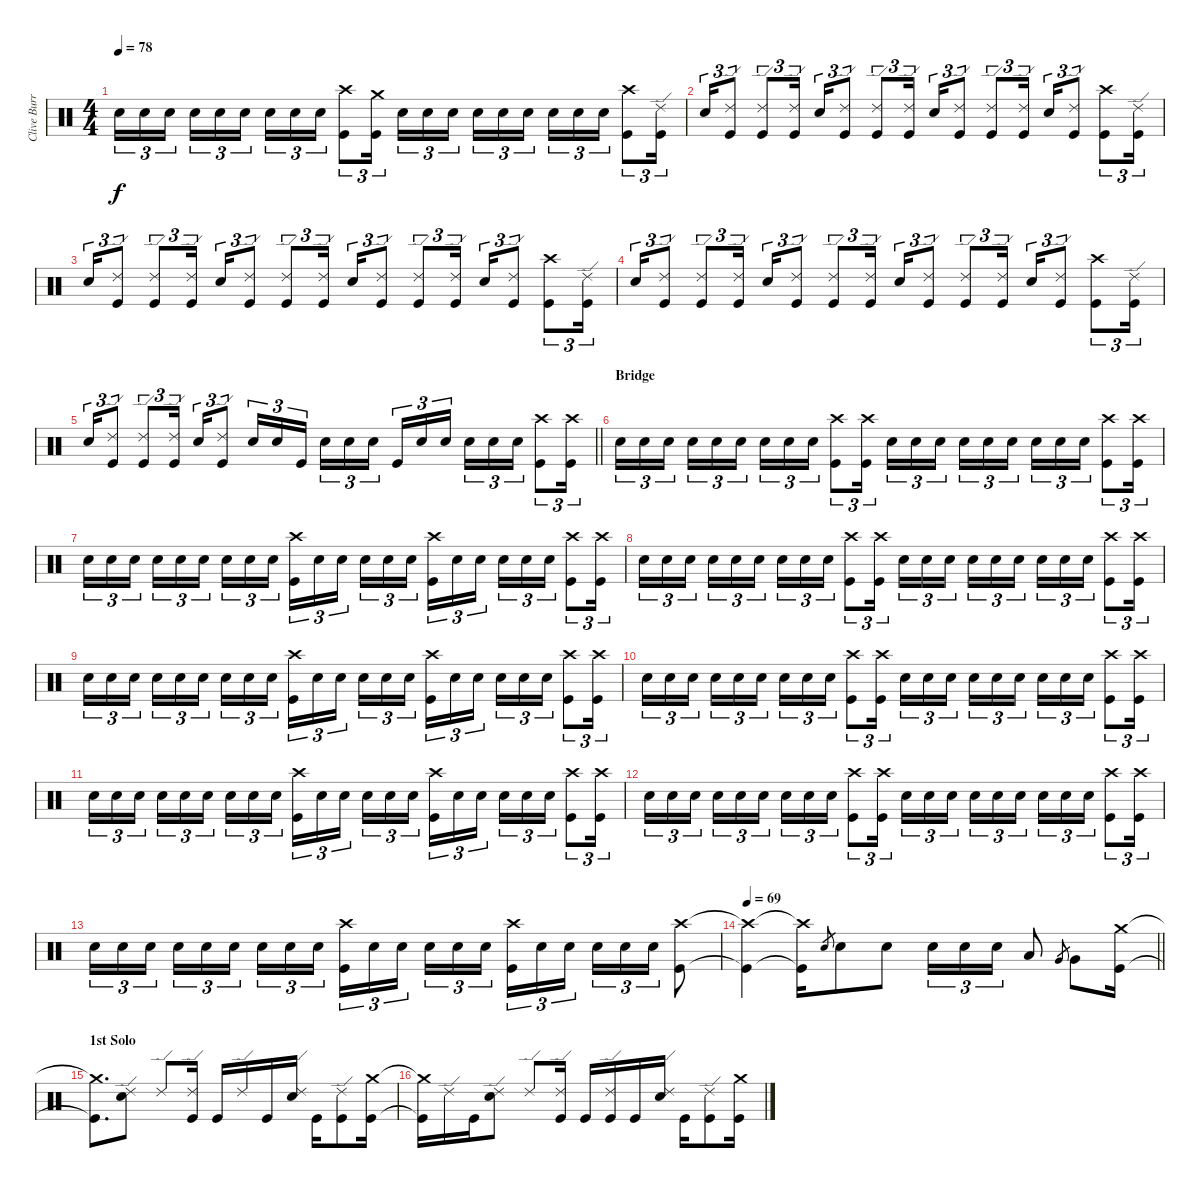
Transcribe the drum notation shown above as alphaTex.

\track ("Clive Burr" "Clive Burr") {instrument percussion}
\staff {score}
\articulation defaults
\ts (4 4)
\tempo 78
\clef neutral
\ks c "Electric Snare (hit)".16{tu (3 2) dy f} "Electric Snare (hit)".16{tu (3 2)} "Electric Snare (hit)".16{tu (3 2) beam splitsecondary} "Electric Snare (hit)".16{tu (3 2)} "Electric Snare (hit)".16{tu (3 2)} "Electric Snare (hit)".16{tu (3 2)} "Electric Snare (hit)".16{tu (3 2)} "Electric Snare (hit)".16{tu (3 2)} "Electric Snare (hit)".16{tu (3 2)}
("Crash high (hit)" "Kick (hit)").8{tu (3 2)} ("Crash medium (hit)" "Kick (hit)").16{tu (3 2)} "Electric Snare (hit)".16{tu (3 2)} "Electric Snare (hit)".16{tu (3 2)} "Electric Snare (hit)".16{tu (3 2) beam splitsecondary} "Electric Snare (hit)".16{tu (3 2)} "Electric Snare (hit)".16{tu (3 2)} "Electric Snare (hit)".16{tu (3 2)} "Electric Snare (hit)".16{tu (3 2)} "Electric Snare (hit)".16{tu (3 2)} "Electric Snare (hit)".16{tu (3 2)} ("Crash high (hit)" "Kick (hit)").8{tu (3 2)} ("Ride (edge) 2" "Kick (hit)").16{tu (3 2)} |
"Electric Snare (hit)".16{tu (3 2)} ("Ride (edge) 2" "Kick (hit)").8{tu (3 2)} ("Ride (edge) 2" "Kick (hit)").8{tu (3 2)} ("Ride (edge) 2" "Kick (hit)").16{tu (3 2)} "Electric Snare (hit)".16{tu (3 2)} ("Ride (edge) 2" "Kick (hit)").8{tu (3 2)} ("Ride (edge) 2" "Kick (hit)").8{tu (3 2)} ("Ride (edge) 2" "Kick (hit)").16{tu (3 2)} "Electric Snare (hit)".16{tu (3 2)} ("Ride (edge) 2" "Kick (hit)").8{tu (3 2)} ("Ride (edge) 2" "Kick (hit)").8{tu (3 2)} ("Ride (edge) 2" "Kick (hit)").16{tu (3 2)} "Electric Snare (hit)".16{tu (3 2)} ("Ride (edge) 2" "Kick (hit)").8{tu (3 2)} ("Crash high (hit)" "Kick (hit)").8{tu (3 2)} ("Ride (edge) 2" "Kick (hit)").16{tu (3 2)} |
"Electric Snare (hit)".16{tu (3 2)} ("Ride (edge) 2" "Kick (hit)").8{tu (3 2)} ("Ride (edge) 2" "Kick (hit)").8{tu (3 2)} ("Ride (edge) 2" "Kick (hit)").16{tu (3 2)} "Electric Snare (hit)".16{tu (3 2)} ("Ride (edge) 2" "Kick (hit)").8{tu (3 2)} ("Ride (edge) 2" "Kick (hit)").8{tu (3 2)} ("Ride (edge) 2" "Kick (hit)").16{tu (3 2)} "Electric Snare (hit)".16{tu (3 2)} ("Ride (edge) 2" "Kick (hit)").8{tu (3 2)} ("Ride (edge) 2" "Kick (hit)").8{tu (3 2)} ("Ride (edge) 2" "Kick (hit)").16{tu (3 2)} "Electric Snare (hit)".16{tu (3 2)} ("Ride (edge) 2" "Kick (hit)").8{tu (3 2)} ("Crash high (hit)" "Kick (hit)").8{tu (3 2)} ("Ride (edge) 2" "Kick (hit)").16{tu (3 2)} |
"Electric Snare (hit)".16{tu (3 2)} ("Ride (edge) 2" "Kick (hit)").8{tu (3 2)} ("Ride (edge) 2" "Kick (hit)").8{tu (3 2)} ("Ride (edge) 2" "Kick (hit)").16{tu (3 2)} "Electric Snare (hit)".16{tu (3 2)} ("Ride (edge) 2" "Kick (hit)").8{tu (3 2)} ("Ride (edge) 2" "Kick (hit)").8{tu (3 2)} ("Ride (edge) 2" "Kick (hit)").16{tu (3 2)} "Electric Snare (hit)".16{tu (3 2)} ("Ride (edge) 2" "Kick (hit)").8{tu (3 2)} ("Ride (edge) 2" "Kick (hit)").8{tu (3 2)} ("Ride (edge) 2" "Kick (hit)").16{tu (3 2)} "Electric Snare (hit)".16{tu (3 2)} ("Ride (edge) 2" "Kick (hit)").8{tu (3 2)} ("Crash high (hit)" "Kick (hit)").8{tu (3 2)} ("Ride (edge) 2" "Kick (hit)").16{tu (3 2)} |
\barLineRight lightlight "Electric Snare (hit)".16{tu (3 2)}
("Ride (edge) 2" "Kick (hit)").8{tu (3 2)} ("Ride (edge) 2" "Kick (hit)").8{tu (3 2)} ("Ride (edge) 2" "Kick (hit)").16{tu (3 2)} "Electric Snare (hit)".16{tu (3 2)} ("Ride (edge) 2" "Kick (hit)").8{tu (3 2)} "Electric Snare (hit)".16{tu (3 2)} "Electric Snare (hit)".16{tu (3 2)} "Kick (hit)".16{tu (3 2)} "Electric Snare (hit)".16{tu (3 2)} "Electric Snare (hit)".16{tu (3 2)} "Electric Snare (hit)".16{tu (3 2) beam splitsecondary} "Kick (hit)".16{tu (3 2)} "Electric Snare (hit)".16{tu (3 2)} "Electric Snare (hit)".16{tu (3 2)} "Electric Snare (hit)".16{tu (3 2)} "Electric Snare (hit)".16{tu (3 2)} "Electric Snare (hit)".16{tu (3 2)} ("Crash high (hit)" "Kick (hit)").8{tu (3 2)} ("Crash high (hit)" "Kick (hit)").16{tu (3 2)} |
\section ("" "Bridge")
"Electric Snare (hit)".16{tu (3 2)} "Electric Snare (hit)".16{tu (3 2)} "Electric Snare (hit)".16{tu (3 2) beam splitsecondary} "Electric Snare (hit)".16{tu (3 2)} "Electric Snare (hit)".16{tu (3 2)} "Electric Snare (hit)".16{tu (3 2)} "Electric Snare (hit)".16{tu (3 2)} "Electric Snare (hit)".16{tu (3 2)} "Electric Snare (hit)".16{tu (3 2)} ("Crash high (hit)" "Kick (hit)").8{tu (3 2)} ("Crash high (hit)" "Kick (hit)").16{tu (3 2)} "Electric Snare (hit)".16{tu (3 2)} "Electric Snare (hit)".16{tu (3 2)} "Electric Snare (hit)".16{tu (3 2) beam splitsecondary} "Electric Snare (hit)".16{tu (3 2)} "Electric Snare (hit)".16{tu (3 2)} "Electric Snare (hit)".16{tu (3 2)} "Electric Snare (hit)".16{tu (3 2)} "Electric Snare (hit)".16{tu (3 2)} "Electric Snare (hit)".16{tu (3 2)} ("Crash high (hit)" "Kick (hit)").8{tu (3 2)} ("Crash high (hit)" "Kick (hit)").16{tu (3 2)} |
"Electric Snare (hit)".16{tu (3 2)} "Electric Snare (hit)".16{tu (3 2)} "Electric Snare (hit)".16{tu (3 2) beam splitsecondary} "Electric Snare (hit)".16{tu (3 2)} "Electric Snare (hit)".16{tu (3 2)} "Electric Snare (hit)".16{tu (3 2)} "Electric Snare (hit)".16{tu (3 2)} "Electric Snare (hit)".16{tu (3 2)} "Electric Snare (hit)".16{tu (3 2) beam splitsecondary} ("Crash high (hit)" "Kick (hit)").16{tu (3 2)} "Electric Snare (hit)".16{tu (3 2)} "Electric Snare (hit)".16{tu (3 2)} "Electric Snare (hit)".16{tu (3 2)} "Electric Snare (hit)".16{tu (3 2)} "Electric Snare (hit)".16{tu (3 2) beam splitsecondary} ("Crash high (hit)" "Kick (hit)").16{tu (3 2)} "Electric Snare (hit)".16{tu (3 2)} "Electric Snare (hit)".16{tu (3 2)} "Electric Snare (hit)".16{tu (3 2)} "Electric Snare (hit)".16{tu (3 2)} "Electric Snare (hit)".16{tu (3 2)} ("Crash high (hit)" "Kick (hit)").8{tu (3 2)} ("Crash high (hit)" "Kick (hit)").16{tu (3 2)} |
"Electric Snare (hit)".16{tu (3 2)} "Electric Snare (hit)".16{tu (3 2)} "Electric Snare (hit)".16{tu (3 2) beam splitsecondary} "Electric Snare (hit)".16{tu (3 2)} "Electric Snare (hit)".16{tu (3 2)} "Electric Snare (hit)".16{tu (3 2)} "Electric Snare (hit)".16{tu (3 2)} "Electric Snare (hit)".16{tu (3 2)} "Electric Snare (hit)".16{tu (3 2)} ("Crash high (hit)" "Kick (hit)").8{tu (3 2)} ("Crash high (hit)" "Kick (hit)").16{tu (3 2)} "Electric Snare (hit)".16{tu (3 2)} "Electric Snare (hit)".16{tu (3 2)} "Electric Snare (hit)".16{tu (3 2) beam splitsecondary} "Electric Snare (hit)".16{tu (3 2)} "Electric Snare (hit)".16{tu (3 2)} "Electric Snare (hit)".16{tu (3 2)} "Electric Snare (hit)".16{tu (3 2)} "Electric Snare (hit)".16{tu (3 2)} "Electric Snare (hit)".16{tu (3 2)} ("Crash high (hit)" "Kick (hit)").8{tu (3 2)} ("Crash high (hit)" "Kick (hit)").16{tu (3 2)} |
"Electric Snare (hit)".16{tu (3 2)} "Electric Snare (hit)".16{tu (3 2)} "Electric Snare (hit)".16{tu (3 2) beam splitsecondary} "Electric Snare (hit)".16{tu (3 2)} "Electric Snare (hit)".16{tu (3 2)} "Electric Snare (hit)".16{tu (3 2)} "Electric Snare (hit)".16{tu (3 2)} "Electric Snare (hit)".16{tu (3 2)} "Electric Snare (hit)".16{tu (3 2) beam splitsecondary} ("Crash high (hit)" "Kick (hit)").16{tu (3 2)} "Electric Snare (hit)".16{tu (3 2)} "Electric Snare (hit)".16{tu (3 2)} "Electric Snare (hit)".16{tu (3 2)} "Electric Snare (hit)".16{tu (3 2)} "Electric Snare (hit)".16{tu (3 2) beam splitsecondary} ("Crash high (hit)" "Kick (hit)").16{tu (3 2)} "Electric Snare (hit)".16{tu (3 2)} "Electric Snare (hit)".16{tu (3 2)} "Electric Snare (hit)".16{tu (3 2)} "Electric Snare (hit)".16{tu (3 2)} "Electric Snare (hit)".16{tu (3 2)} ("Crash high (hit)" "Kick (hit)").8{tu (3 2)} ("Crash high (hit)" "Kick (hit)").16{tu (3 2)} |
"Electric Snare (hit)".16{tu (3 2)} "Electric Snare (hit)".16{tu (3 2)} "Electric Snare (hit)".16{tu (3 2) beam splitsecondary} "Electric Snare (hit)".16{tu (3 2)} "Electric Snare (hit)".16{tu (3 2)} "Electric Snare (hit)".16{tu (3 2)} "Electric Snare (hit)".16{tu (3 2)} "Electric Snare (hit)".16{tu (3 2)} "Electric Snare (hit)".16{tu (3 2)} ("Crash high (hit)" "Kick (hit)").8{tu (3 2)} ("Crash high (hit)" "Kick (hit)").16{tu (3 2)} "Electric Snare (hit)".16{tu (3 2)} "Electric Snare (hit)".16{tu (3 2)} "Electric Snare (hit)".16{tu (3 2) beam splitsecondary} "Electric Snare (hit)".16{tu (3 2)} "Electric Snare (hit)".16{tu (3 2)} "Electric Snare (hit)".16{tu (3 2)} "Electric Snare (hit)".16{tu (3 2)} "Electric Snare (hit)".16{tu (3 2)} "Electric Snare (hit)".16{tu (3 2)} ("Crash high (hit)" "Kick (hit)").8{tu (3 2)} ("Crash high (hit)" "Kick (hit)").16{tu (3 2)} |
"Electric Snare (hit)".16{tu (3 2)} "Electric Snare (hit)".16{tu (3 2)} "Electric Snare (hit)".16{tu (3 2) beam splitsecondary} "Electric Snare (hit)".16{tu (3 2)} "Electric Snare (hit)".16{tu (3 2)} "Electric Snare (hit)".16{tu (3 2)} "Electric Snare (hit)".16{tu (3 2)} "Electric Snare (hit)".16{tu (3 2)} "Electric Snare (hit)".16{tu (3 2) beam splitsecondary} ("Crash high (hit)" "Kick (hit)").16{tu (3 2)} "Electric Snare (hit)".16{tu (3 2)} "Electric Snare (hit)".16{tu (3 2)} "Electric Snare (hit)".16{tu (3 2)} "Electric Snare (hit)".16{tu (3 2)} "Electric Snare (hit)".16{tu (3 2) beam splitsecondary} ("Crash high (hit)" "Kick (hit)").16{tu (3 2)} "Electric Snare (hit)".16{tu (3 2)} "Electric Snare (hit)".16{tu (3 2)} "Electric Snare (hit)".16{tu (3 2)} "Electric Snare (hit)".16{tu (3 2)} "Electric Snare (hit)".16{tu (3 2)} ("Crash high (hit)" "Kick (hit)").8{tu (3 2)} ("Crash high (hit)" "Kick (hit)").16{tu (3 2)} |
"Electric Snare (hit)".16{tu (3 2)} "Electric Snare (hit)".16{tu (3 2)} "Electric Snare (hit)".16{tu (3 2) beam splitsecondary} "Electric Snare (hit)".16{tu (3 2)} "Electric Snare (hit)".16{tu (3 2)} "Electric Snare (hit)".16{tu (3 2)} "Electric Snare (hit)".16{tu (3 2)} "Electric Snare (hit)".16{tu (3 2)} "Electric Snare (hit)".16{tu (3 2)} ("Crash high (hit)" "Kick (hit)").8{tu (3 2)} ("Crash high (hit)" "Kick (hit)").16{tu (3 2)} "Electric Snare (hit)".16{tu (3 2)} "Electric Snare (hit)".16{tu (3 2)} "Electric Snare (hit)".16{tu (3 2) beam splitsecondary} "Electric Snare (hit)".16{tu (3 2)} "Electric Snare (hit)".16{tu (3 2)} "Electric Snare (hit)".16{tu (3 2)} "Electric Snare (hit)".16{tu (3 2)} "Electric Snare (hit)".16{tu (3 2)} "Electric Snare (hit)".16{tu (3 2)} ("Crash high (hit)" "Kick (hit)").8{tu (3 2)} ("Crash high (hit)" "Kick (hit)").16{tu (3 2)} |
"Electric Snare (hit)".16{tu (3 2)} "Electric Snare (hit)".16{tu (3 2)} "Electric Snare (hit)".16{tu (3 2) beam splitsecondary} "Electric Snare (hit)".16{tu (3 2)} "Electric Snare (hit)".16{tu (3 2)} "Electric Snare (hit)".16{tu (3 2)} "Electric Snare (hit)".16{tu (3 2)} "Electric Snare (hit)".16{tu (3 2)} "Electric Snare (hit)".16{tu (3 2) beam splitsecondary} ("Crash high (hit)" "Kick (hit)").16{tu (3 2)} "Electric Snare (hit)".16{tu (3 2)} "Electric Snare (hit)".16{tu (3 2)} "Electric Snare (hit)".16{tu (3 2)} "Electric Snare (hit)".16{tu (3 2)} "Electric Snare (hit)".16{tu (3 2) beam splitsecondary} ("Crash high (hit)" "Kick (hit)").16{tu (3 2)} "Electric Snare (hit)".16{tu (3 2)} "Electric Snare (hit)".16{tu (3 2)} "Electric Snare (hit)".16{tu (3 2)} "Electric Snare (hit)".16{tu (3 2)} "Electric Snare (hit)".16{tu (3 2)} ("Crash high (hit)" "Kick (hit)").8 |
\tempo 69
\barLineRight lightlight
("Crash high (hit)"{t} "Kick (hit)"{t}).4 ("Crash high (hit)"{t} "Kick (hit)"{t}).16 "Electric Snare (hit)".8{gr} "Electric Snare (hit)".8 "Electric Snare (hit)".8 "Electric Snare (hit)".16{tu (3 2)} "Electric Snare (hit)".16{tu (3 2)} "Electric Snare (hit)".16{tu (3 2)} "Low Tom (hit)".8 "Very Low Tom (hit)".8{gr} "Very Low Tom (hit)".8 ("Crash medium (hit)" "Kick (hit)").16 |
\section ("" "1st Solo")
("Crash medium (hit)"{t} "Kick (hit)"{t}).8{d} ("Ride (edge) 2" "Electric Snare (hit)").8 "Ride (edge) 2".8 ("Ride (edge) 2" "Kick (hit)").16 "Kick (hit)".16 "Ride (edge) 2".16 "Kick (hit)".16 ("Ride (edge) 2" "Electric Snare (hit)").16 "Kick (hit)".16 ("Ride (edge) 2" "Kick (hit)").8 ("Crash medium (hit)" "Kick (hit)").16 |
("Crash medium (hit)"{t} "Kick (hit)"{t}).16 "Ride (edge) 2".16 "Kick (hit)".16 ("Ride (edge) 2" "Electric Snare (hit)").8 "Ride (edge) 2".8 ("Ride (edge) 2" "Kick (hit)").16 "Kick (hit)".16 ("Ride (edge) 2" "Kick (hit)").16 "Kick (hit)".16 ("Ride (edge) 2" "Electric Snare (hit)").16 "Kick (hit)".16 ("Ride (edge) 2" "Kick (hit)").8 ("Crash medium (hit)" "Kick (hit)").16
